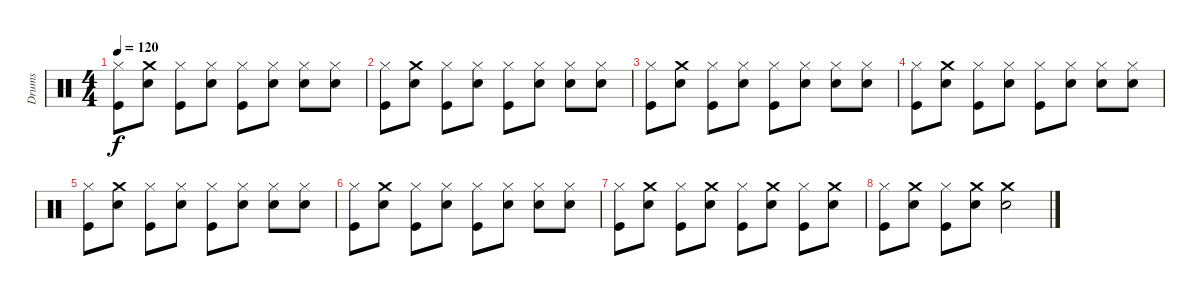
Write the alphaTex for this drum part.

\track ("Drums" "Drums") {instrument percussion}
\staff {score}
\articulation defaults
\ts (4 4)
\tempo 120
\clef neutral
\ks c
("Hi-Hat (closed)" "Kick (hit)").8{dy f} ("Crash medium (hit)" "Electric Snare (hit)").8 ("Hi-Hat (closed)" "Kick (hit)").8 ("Hi-Hat (closed)" "Electric Snare (hit)").8 ("Hi-Hat (closed)" "Kick (hit)").8 ("Hi-Hat (closed)" "Electric Snare (hit)").8 ("Hi-Hat (closed)" "Electric Snare (hit)").8 ("Hi-Hat (closed)" "Electric Snare (hit)").8 |
("Hi-Hat (closed)" "Kick (hit)").8 ("Crash medium (hit)" "Electric Snare (hit)").8 ("Hi-Hat (closed)" "Kick (hit)").8 ("Hi-Hat (closed)" "Electric Snare (hit)").8 ("Hi-Hat (closed)" "Kick (hit)").8 ("Hi-Hat (closed)" "Electric Snare (hit)").8 ("Hi-Hat (closed)" "Electric Snare (hit)").8 ("Hi-Hat (closed)" "Electric Snare (hit)").8 |
("Hi-Hat (closed)" "Kick (hit)").8 ("Crash medium (hit)" "Electric Snare (hit)").8 ("Hi-Hat (closed)" "Kick (hit)").8 ("Hi-Hat (closed)" "Electric Snare (hit)").8 ("Hi-Hat (closed)" "Kick (hit)").8 ("Hi-Hat (closed)" "Electric Snare (hit)").8 ("Hi-Hat (closed)" "Electric Snare (hit)").8 ("Hi-Hat (closed)" "Electric Snare (hit)").8 |
("Hi-Hat (closed)" "Kick (hit)").8 ("Crash medium (hit)" "Electric Snare (hit)").8 ("Hi-Hat (closed)" "Kick (hit)").8 ("Hi-Hat (closed)" "Electric Snare (hit)").8 ("Hi-Hat (closed)" "Kick (hit)").8 ("Hi-Hat (closed)" "Electric Snare (hit)").8 ("Hi-Hat (closed)" "Electric Snare (hit)").8 ("Hi-Hat (closed)" "Electric Snare (hit)").8 |
("Hi-Hat (closed)" "Kick (hit)").8 ("Crash medium (hit)" "Electric Snare (hit)").8 ("Hi-Hat (closed)" "Kick (hit)").8 ("Hi-Hat (closed)" "Electric Snare (hit)").8 ("Hi-Hat (closed)" "Kick (hit)").8 ("Hi-Hat (closed)" "Electric Snare (hit)").8 ("Hi-Hat (closed)" "Electric Snare (hit)").8 ("Hi-Hat (closed)" "Electric Snare (hit)").8 |
("Hi-Hat (closed)" "Kick (hit)").8 ("Crash medium (hit)" "Electric Snare (hit)").8 ("Hi-Hat (closed)" "Kick (hit)").8 ("Hi-Hat (closed)" "Electric Snare (hit)").8 ("Hi-Hat (closed)" "Kick (hit)").8 ("Hi-Hat (closed)" "Electric Snare (hit)").8 ("Hi-Hat (closed)" "Electric Snare (hit)").8 ("Hi-Hat (closed)" "Electric Snare (hit)").8 |
("Hi-Hat (closed)" "Kick (hit)").8 ("Crash medium (hit)" "Electric Snare (hit)").8 ("Hi-Hat (closed)" "Kick (hit)").8 ("Crash medium (hit)" "Electric Snare (hit)").8 ("Hi-Hat (closed)" "Kick (hit)").8 ("Crash medium (hit)" "Electric Snare (hit)").8 ("Hi-Hat (closed)" "Kick (hit)").8 ("Crash medium (hit)" "Electric Snare (hit)").8 |
("Hi-Hat (closed)" "Kick (hit)").8 ("Crash medium (hit)" "Electric Snare (hit)").8 ("Hi-Hat (closed)" "Kick (hit)").8 ("Crash medium (hit)" "Electric Snare (hit)").8 ("Crash medium (hit)" "Electric Snare (hit)").2
